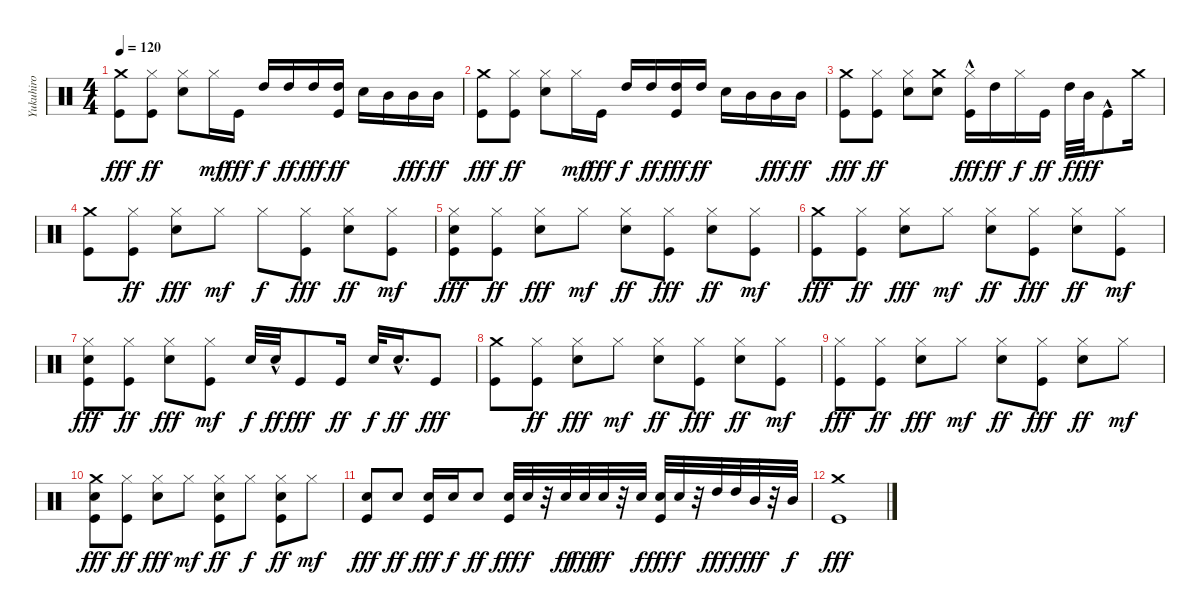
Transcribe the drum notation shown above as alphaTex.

\track ("Yukuhiro" "Yukuhiro") {instrument percussion}
\staff {score}
\articulation defaults
\ts (4 4)
\tempo 120
\clef neutral
\ks c
("Crash medium (hit)" "Kick (hit)").8{dy fff} ("Kick (hit)" "Hi-Hat (closed)").8{dy ff} ("Electric Snare (hit)" "Hi-Hat (closed)").8 "Hi-Hat (closed)".16{dy mf} "Kick (hit)".16{dy fff} "High Tom (hit)".16{dy f} "High Tom (hit)".16{dy ff} "High Tom (hit)".16{dy fff} ("Kick (hit)" "High Tom (hit)").16{dy ff} "Electric Snare (hit)".16 "Mid Tom (hit)".16 "Mid Tom (hit)".16{dy fff} "Mid Tom (hit)".16{dy ff} |
("Crash medium (hit)" "Kick (hit)").8{dy fff} ("Kick (hit)" "Hi-Hat (closed)").8{dy ff} ("Electric Snare (hit)" "Hi-Hat (closed)").8 "Hi-Hat (closed)".16{dy mf} "Kick (hit)".16{dy fff} "High Tom (hit)".16{dy f} "High Tom (hit)".16{dy ff} ("Kick (hit)" "High Tom (hit)").16{dy fff} "High Tom (hit)".16{dy ff} "Electric Snare (hit)".16 "Mid Tom (hit)".16 "Mid Tom (hit)".16{dy fff} "Mid Tom (hit)".16{dy ff} |
("Crash medium (hit)" "Kick (hit)").8{dy fff} ("Kick (hit)" "Hi-Hat (closed)").8{dy ff} ("Electric Snare (hit)" "Hi-Hat (closed)").8 ("Crash medium (hit)" "Electric Snare (hit)").8 ("Kick (hit)"{hac} "Hi-Hat (closed)").16{dy fff} "High Tom (hit)".16{dy ff} "Hi-Hat (closed)".16{dy f} "Kick (hit)".16{dy ff} "High Tom (hit)".32{dy f} "Mid Tom (hit)".32{dy fff} "Kick (hit)"{hac}.8 "Crash medium (hit)".16 |
("Kick (hit)" "Crash medium (hit)").8 ("Kick (hit)" "Hi-Hat (closed)").8{dy ff} ("Electric Snare (hit)" "Hi-Hat (closed)").8{dy fff} "Hi-Hat (closed)".8{dy mf} "Hi-Hat (closed)".8{dy f} ("Kick (hit)" "Hi-Hat (closed)").8{dy fff} ("Hi-Hat (closed)" "Electric Snare (hit)").8{dy ff} ("Kick (hit)" "Hi-Hat (closed)").8{dy mf} |
("Electric Snare (hit)" "Kick (hit)" "Hi-Hat (closed)").8{dy fff} ("Kick (hit)" "Hi-Hat (closed)").8{dy ff} ("Electric Snare (hit)" "Hi-Hat (closed)").8{dy fff} "Hi-Hat (closed)".8{dy mf} ("Electric Snare (hit)" "Hi-Hat (closed)").8{dy ff} ("Kick (hit)" "Hi-Hat (closed)").8{dy fff} ("Hi-Hat (closed)" "Electric Snare (hit)").8{dy ff} ("Kick (hit)" "Hi-Hat (closed)").8{dy mf} |
("Kick (hit)" "Crash medium (hit)").8{dy fff} ("Kick (hit)" "Hi-Hat (closed)").8{dy ff} ("Electric Snare (hit)" "Hi-Hat (closed)").8{dy fff} "Hi-Hat (closed)".8{dy mf} ("Electric Snare (hit)" "Hi-Hat (closed)").8{dy ff} ("Kick (hit)" "Hi-Hat (closed)").8{dy fff} ("Hi-Hat (closed)" "Electric Snare (hit)").8{dy ff} ("Kick (hit)" "Hi-Hat (closed)").8{dy mf} |
("Electric Snare (hit)" "Kick (hit)" "Hi-Hat (closed)").8{dy fff} ("Kick (hit)" "Hi-Hat (closed)").8{dy ff} ("Electric Snare (hit)" "Hi-Hat (closed)").8{dy fff} ("Kick (hit)" "Hi-Hat (closed)").8{dy mf} "Electric Snare (hit)".32{dy f} "Electric Snare (hit)"{hac}.32{dy ff} "Kick (hit)".8{dy fff} "Kick (hit)".16{dy ff} "Electric Snare (hit)".32{dy f} "Electric Snare (hit)"{hac}.16{d dy ff} "Kick (hit)".8{dy fff} |
("Kick (hit)" "Crash medium (hit)").8 ("Kick (hit)" "Hi-Hat (closed)").8{dy ff} ("Electric Snare (hit)" "Hi-Hat (closed)").8{dy fff} "Hi-Hat (closed)".8{dy mf} ("Electric Snare (hit)" "Hi-Hat (closed)").8{dy ff} ("Kick (hit)" "Hi-Hat (closed)").8{dy fff} ("Hi-Hat (closed)" "Electric Snare (hit)").8{dy ff} ("Kick (hit)" "Hi-Hat (closed)").8{dy mf} |
("Kick (hit)" "Hi-Hat (closed)").8{dy fff} ("Kick (hit)" "Hi-Hat (closed)").8{dy ff} ("Electric Snare (hit)" "Hi-Hat (closed)").8{dy fff} "Hi-Hat (closed)".8{dy mf} ("Electric Snare (hit)" "Hi-Hat (closed)").8{dy ff} ("Kick (hit)" "Hi-Hat (closed)").8{dy fff} ("Hi-Hat (closed)" "Electric Snare (hit)").8{dy ff} "Hi-Hat (closed)".8{dy mf} |
("Electric Snare (hit)" "Kick (hit)" "Crash medium (hit)").8{dy fff} ("Kick (hit)" "Hi-Hat (closed)").8{dy ff} ("Electric Snare (hit)" "Hi-Hat (closed)").8{dy fff} "Hi-Hat (closed)".8{dy mf} ("Kick (hit)" "Electric Snare (hit)" "Hi-Hat (closed)").8{dy ff} "Hi-Hat (closed)".8{dy f} ("Kick (hit)" "Hi-Hat (closed)" "Electric Snare (hit)").8{dy ff} "Hi-Hat (closed)".8{dy mf} |
("Electric Snare (hit)" "Kick (hit)").8{dy fff} "Electric Snare (hit)".8{dy ff} ("Electric Snare (hit)" "Kick (hit)").16{dy fff} "Electric Snare (hit)".16{dy f} "Electric Snare (hit)".8{dy ff} ("Electric Snare (hit)" "Kick (hit)").32{dy fff} "Electric Snare (hit)".32{dy f} r.32 "Electric Snare (hit)".32{dy ff} "Electric Snare (hit)".32{dy fff} "Electric Snare (hit)".32{dy ff} r.32 "Electric Snare (hit)".32{dy f} ("Electric Snare (hit)" "Kick (hit)").32{dy fff} "Electric Snare (hit)".32{dy f} r.32 "High Tom (hit)".32{dy fff} "High Tom (hit)".32{dy f} "Mid Tom (hit)".32{dy fff} r.32 "Mid Tom (hit)".32{dy f} |
("Crash medium (hit)" "Kick (hit)").1{dy fff}
